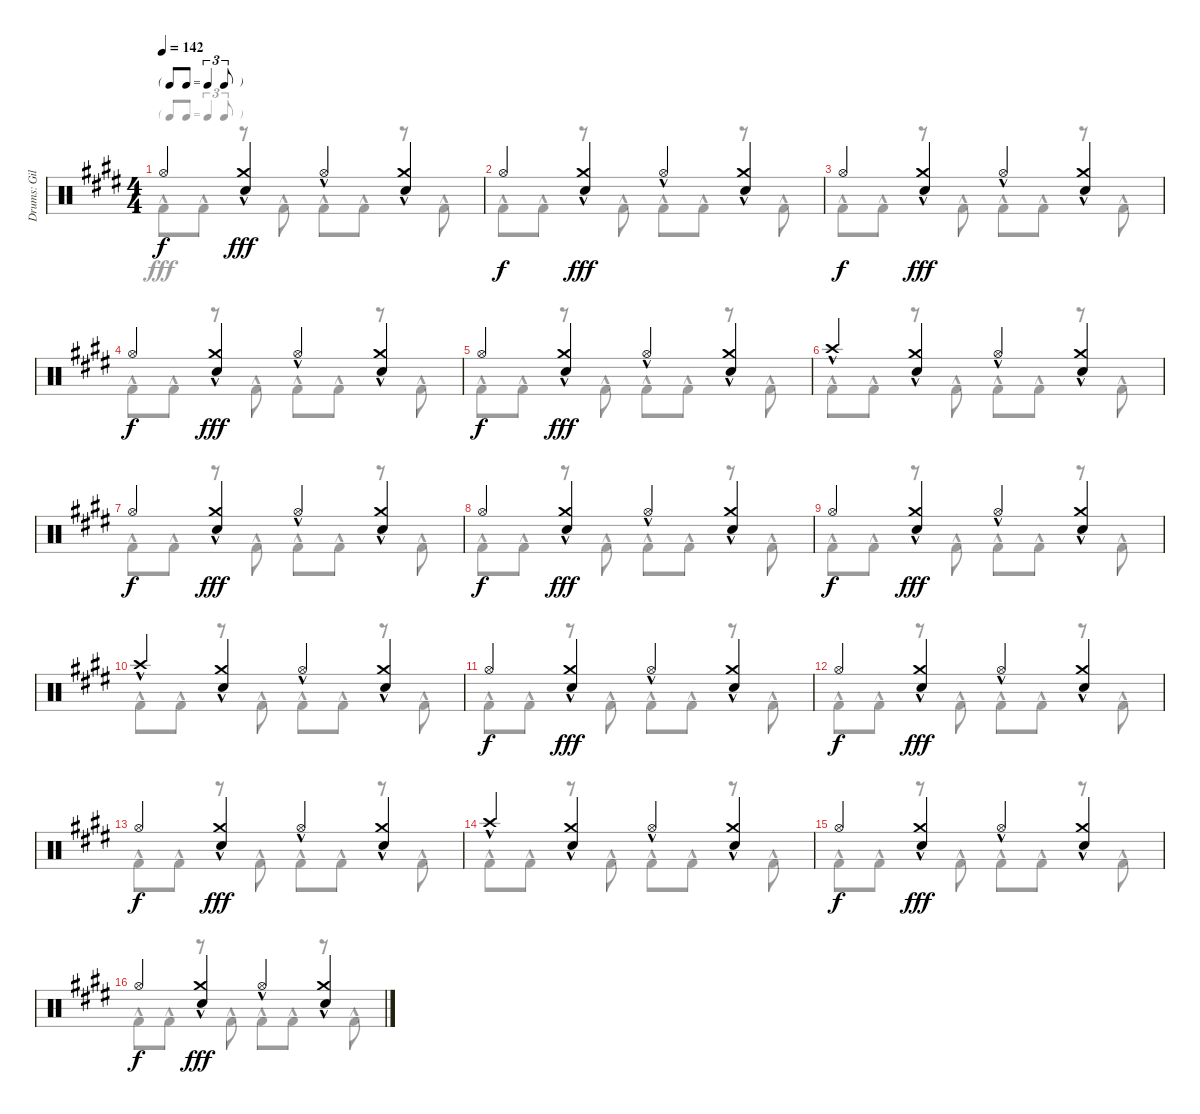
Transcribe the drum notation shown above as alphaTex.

\track ("Drums: Gil" "Drums: Gil") {instrument percussion}
\staff {score}
\articulation defaults
\voice
\ts (4 4)
\tf triplet8th
\tempo 142
\clef neutral
\ks e "Hi-Hat (open)".4{dy f beam merge}
("Crash medium (hit)"{hac} "Snare (hit) 2"{hac}).4{dy fff} "Hi-Hat (open)"{hac}.4{beam merge} ("Crash medium (hit)"{hac} "Snare (hit) 2"{hac}).4 |
"Hi-Hat (open)".4{dy f beam merge} ("Crash medium (hit)"{hac} "Snare (hit) 2"{hac}).4{dy fff} "Hi-Hat (open)"{hac}.4{beam merge} ("Crash medium (hit)"{hac} "Snare (hit) 2"{hac}).4 |
"Hi-Hat (open)".4{dy f beam merge} ("Crash medium (hit)"{hac} "Snare (hit) 2"{hac}).4{dy fff} "Hi-Hat (open)"{hac}.4{beam merge} ("Crash medium (hit)"{hac} "Snare (hit) 2"{hac}).4 |
"Hi-Hat (open)".4{dy f beam merge} ("Crash medium (hit)"{hac} "Snare (hit) 2"{hac}).4{dy fff} "Hi-Hat (open)"{hac}.4{beam merge} ("Crash medium (hit)"{hac} "Snare (hit) 2"{hac}).4 |
"Hi-Hat (open)".4{dy f beam merge} ("Crash medium (hit)"{hac} "Snare (hit) 2"{hac}).4{dy fff} "Hi-Hat (open)"{hac}.4{beam merge} ("Crash medium (hit)"{hac} "Snare (hit) 2"{hac}).4 |
"Crash high (hit)"{hac}.4{beam merge} ("Crash medium (hit)"{hac} "Snare (hit) 2"{hac}).4 "Hi-Hat (open)"{hac}.4{beam merge} ("Crash medium (hit)"{hac} "Snare (hit) 2"{hac}).4 |
"Hi-Hat (open)".4{dy f beam merge} ("Crash medium (hit)"{hac} "Snare (hit) 2"{hac}).4{dy fff} "Hi-Hat (open)"{hac}.4{beam merge} ("Crash medium (hit)"{hac} "Snare (hit) 2"{hac}).4 |
"Hi-Hat (open)".4{dy f beam merge} ("Crash medium (hit)"{hac} "Snare (hit) 2"{hac}).4{dy fff} "Hi-Hat (open)"{hac}.4{beam merge} ("Crash medium (hit)"{hac} "Snare (hit) 2"{hac}).4 |
"Hi-Hat (open)".4{dy f beam merge} ("Crash medium (hit)"{hac} "Snare (hit) 2"{hac}).4{dy fff} "Hi-Hat (open)"{hac}.4{beam merge} ("Crash medium (hit)"{hac} "Snare (hit) 2"{hac}).4 |
"Crash high (hit)"{hac}.4{beam merge} ("Crash medium (hit)"{hac} "Snare (hit) 2"{hac}).4 "Hi-Hat (open)"{hac}.4{beam merge} ("Crash medium (hit)"{hac} "Snare (hit) 2"{hac}).4 |
"Hi-Hat (open)".4{dy f beam merge} ("Crash medium (hit)"{hac} "Snare (hit) 2"{hac}).4{dy fff} "Hi-Hat (open)"{hac}.4{beam merge} ("Crash medium (hit)"{hac} "Snare (hit) 2"{hac}).4 |
"Hi-Hat (open)".4{dy f beam merge} ("Crash medium (hit)"{hac} "Snare (hit) 2"{hac}).4{dy fff} "Hi-Hat (open)"{hac}.4{beam merge} ("Crash medium (hit)"{hac} "Snare (hit) 2"{hac}).4 |
"Hi-Hat (open)".4{dy f beam merge} ("Crash medium (hit)"{hac} "Snare (hit) 2"{hac}).4{dy fff} "Hi-Hat (open)"{hac}.4{beam merge} ("Crash medium (hit)"{hac} "Snare (hit) 2"{hac}).4 |
"Crash high (hit)"{hac}.4{beam merge} ("Crash medium (hit)"{hac} "Snare (hit) 2"{hac}).4 "Hi-Hat (open)"{hac}.4{beam merge} ("Crash medium (hit)"{hac} "Snare (hit) 2"{hac}).4 |
"Hi-Hat (open)".4{dy f beam merge} ("Crash medium (hit)"{hac} "Snare (hit) 2"{hac}).4{dy fff} "Hi-Hat (open)"{hac}.4{beam merge} ("Crash medium (hit)"{hac} "Snare (hit) 2"{hac}).4 |
"Hi-Hat (open)".4{dy f beam merge} ("Crash medium (hit)"{hac} "Snare (hit) 2"{hac}).4{dy fff} "Hi-Hat (open)"{hac}.4{beam merge} ("Crash medium (hit)"{hac} "Snare (hit) 2"{hac}).4
\voice
\clef neutral
\ottava regular
\simile none
\ks e "Kick (hit) 2"{hac}.8{dy fff} "Kick (hit) 2"{hac}.8
r.8 "Kick (hit) 2"{hac}.8 "Kick (hit) 2"{hac}.8 "Kick (hit) 2"{hac}.8 r.8 "Kick (hit) 2"{hac}.8 |
"Kick (hit) 2"{hac}.8 "Kick (hit) 2"{hac}.8 r.8 "Kick (hit) 2"{hac}.8 "Kick (hit) 2"{hac}.8 "Kick (hit) 2"{hac}.8 r.8 "Kick (hit) 2"{hac}.8 |
"Kick (hit) 2"{hac}.8 "Kick (hit) 2"{hac}.8 r.8 "Kick (hit) 2"{hac}.8 "Kick (hit) 2"{hac}.8 "Kick (hit) 2"{hac}.8 r.8 "Kick (hit) 2"{hac}.8 |
"Kick (hit) 2"{hac}.8 "Kick (hit) 2"{hac}.8 r.8 "Kick (hit) 2"{hac}.8 "Kick (hit) 2"{hac}.8 "Kick (hit) 2"{hac}.8 r.8 "Kick (hit) 2"{hac}.8 |
"Kick (hit) 2"{hac}.8 "Kick (hit) 2"{hac}.8 r.8 "Kick (hit) 2"{hac}.8 "Kick (hit) 2"{hac}.8 "Kick (hit) 2"{hac}.8 r.8 "Kick (hit) 2"{hac}.8 |
"Kick (hit) 2"{hac}.8 "Kick (hit) 2"{hac}.8 r.8 "Kick (hit) 2"{hac}.8 "Kick (hit) 2"{hac}.8 "Kick (hit) 2"{hac}.8 r.8 "Kick (hit) 2"{hac}.8 |
"Kick (hit) 2"{hac}.8 "Kick (hit) 2"{hac}.8 r.8 "Kick (hit) 2"{hac}.8 "Kick (hit) 2"{hac}.8 "Kick (hit) 2"{hac}.8 r.8 "Kick (hit) 2"{hac}.8 |
"Kick (hit) 2"{hac}.8 "Kick (hit) 2"{hac}.8 r.8 "Kick (hit) 2"{hac}.8 "Kick (hit) 2"{hac}.8 "Kick (hit) 2"{hac}.8 r.8 "Kick (hit) 2"{hac}.8 |
"Kick (hit) 2"{hac}.8 "Kick (hit) 2"{hac}.8 r.8 "Kick (hit) 2"{hac}.8 "Kick (hit) 2"{hac}.8 "Kick (hit) 2"{hac}.8 r.8 "Kick (hit) 2"{hac}.8 |
"Kick (hit) 2"{hac}.8 "Kick (hit) 2"{hac}.8 r.8 "Kick (hit) 2"{hac}.8 "Kick (hit) 2"{hac}.8 "Kick (hit) 2"{hac}.8 r.8 "Kick (hit) 2"{hac}.8 |
"Kick (hit) 2"{hac}.8 "Kick (hit) 2"{hac}.8 r.8 "Kick (hit) 2"{hac}.8 "Kick (hit) 2"{hac}.8 "Kick (hit) 2"{hac}.8 r.8 "Kick (hit) 2"{hac}.8 |
"Kick (hit) 2"{hac}.8 "Kick (hit) 2"{hac}.8 r.8 "Kick (hit) 2"{hac}.8 "Kick (hit) 2"{hac}.8 "Kick (hit) 2"{hac}.8 r.8 "Kick (hit) 2"{hac}.8 |
"Kick (hit) 2"{hac}.8 "Kick (hit) 2"{hac}.8 r.8 "Kick (hit) 2"{hac}.8 "Kick (hit) 2"{hac}.8 "Kick (hit) 2"{hac}.8 r.8 "Kick (hit) 2"{hac}.8 |
"Kick (hit) 2"{hac}.8 "Kick (hit) 2"{hac}.8 r.8 "Kick (hit) 2"{hac}.8 "Kick (hit) 2"{hac}.8 "Kick (hit) 2"{hac}.8 r.8 "Kick (hit) 2"{hac}.8 |
"Kick (hit) 2"{hac}.8 "Kick (hit) 2"{hac}.8 r.8 "Kick (hit) 2"{hac}.8 "Kick (hit) 2"{hac}.8 "Kick (hit) 2"{hac}.8 r.8 "Kick (hit) 2"{hac}.8 |
"Kick (hit) 2"{hac}.8 "Kick (hit) 2"{hac}.8 r.8 "Kick (hit) 2"{hac}.8 "Kick (hit) 2"{hac}.8 "Kick (hit) 2"{hac}.8 r.8 "Kick (hit) 2"{hac}.8
